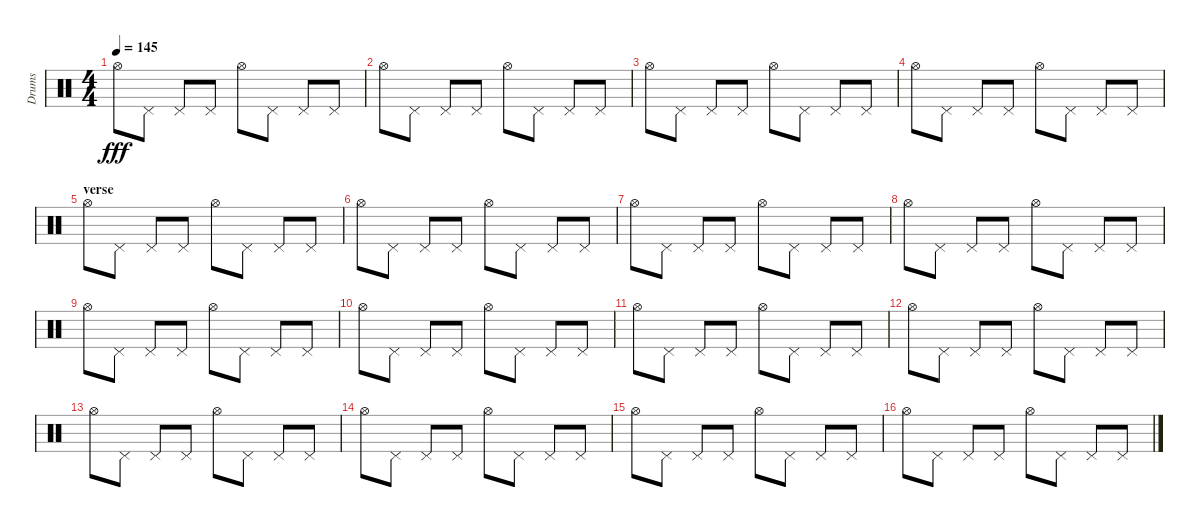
\track ("Drums" "Drums") {instrument percussion}
\staff {score}
\articulation defaults
\ts (4 4)
\tempo 145
\clef neutral
\ks c "Hi-Hat (open)".8{dy fff} "Pedal Hi-Hat (hit)".8 "Pedal Hi-Hat (hit)".8 "Pedal Hi-Hat (hit)".8 "Hi-Hat (open)".8 "Pedal Hi-Hat (hit)".8 "Pedal Hi-Hat (hit)".8 "Pedal Hi-Hat (hit)".8
|
"Hi-Hat (open)".8 "Pedal Hi-Hat (hit)".8 "Pedal Hi-Hat (hit)".8 "Pedal Hi-Hat (hit)".8 "Hi-Hat (open)".8 "Pedal Hi-Hat (hit)".8 "Pedal Hi-Hat (hit)".8 "Pedal Hi-Hat (hit)".8 |
"Hi-Hat (open)".8 "Pedal Hi-Hat (hit)".8 "Pedal Hi-Hat (hit)".8 "Pedal Hi-Hat (hit)".8 "Hi-Hat (open)".8 "Pedal Hi-Hat (hit)".8 "Pedal Hi-Hat (hit)".8 "Pedal Hi-Hat (hit)".8 |
"Hi-Hat (open)".8 "Pedal Hi-Hat (hit)".8 "Pedal Hi-Hat (hit)".8 "Pedal Hi-Hat (hit)".8 "Hi-Hat (open)".8 "Pedal Hi-Hat (hit)".8 "Pedal Hi-Hat (hit)".8 "Pedal Hi-Hat (hit)".8 |
\section ("" "verse")
"Hi-Hat (open)".8 "Pedal Hi-Hat (hit)".8 "Pedal Hi-Hat (hit)".8 "Pedal Hi-Hat (hit)".8 "Hi-Hat (open)".8 "Pedal Hi-Hat (hit)".8 "Pedal Hi-Hat (hit)".8 "Pedal Hi-Hat (hit)".8 |
"Hi-Hat (open)".8 "Pedal Hi-Hat (hit)".8 "Pedal Hi-Hat (hit)".8 "Pedal Hi-Hat (hit)".8 "Hi-Hat (open)".8 "Pedal Hi-Hat (hit)".8 "Pedal Hi-Hat (hit)".8 "Pedal Hi-Hat (hit)".8 |
"Hi-Hat (open)".8 "Pedal Hi-Hat (hit)".8 "Pedal Hi-Hat (hit)".8 "Pedal Hi-Hat (hit)".8 "Hi-Hat (open)".8 "Pedal Hi-Hat (hit)".8 "Pedal Hi-Hat (hit)".8 "Pedal Hi-Hat (hit)".8 |
"Hi-Hat (open)".8 "Pedal Hi-Hat (hit)".8 "Pedal Hi-Hat (hit)".8 "Pedal Hi-Hat (hit)".8 "Hi-Hat (open)".8 "Pedal Hi-Hat (hit)".8 "Pedal Hi-Hat (hit)".8 "Pedal Hi-Hat (hit)".8 |
"Hi-Hat (open)".8 "Pedal Hi-Hat (hit)".8 "Pedal Hi-Hat (hit)".8 "Pedal Hi-Hat (hit)".8 "Hi-Hat (open)".8 "Pedal Hi-Hat (hit)".8 "Pedal Hi-Hat (hit)".8 "Pedal Hi-Hat (hit)".8 |
"Hi-Hat (open)".8 "Pedal Hi-Hat (hit)".8 "Pedal Hi-Hat (hit)".8 "Pedal Hi-Hat (hit)".8 "Hi-Hat (open)".8 "Pedal Hi-Hat (hit)".8 "Pedal Hi-Hat (hit)".8 "Pedal Hi-Hat (hit)".8 |
"Hi-Hat (open)".8 "Pedal Hi-Hat (hit)".8 "Pedal Hi-Hat (hit)".8 "Pedal Hi-Hat (hit)".8 "Hi-Hat (open)".8 "Pedal Hi-Hat (hit)".8 "Pedal Hi-Hat (hit)".8 "Pedal Hi-Hat (hit)".8 |
"Hi-Hat (open)".8 "Pedal Hi-Hat (hit)".8 "Pedal Hi-Hat (hit)".8 "Pedal Hi-Hat (hit)".8 "Hi-Hat (open)".8 "Pedal Hi-Hat (hit)".8 "Pedal Hi-Hat (hit)".8 "Pedal Hi-Hat (hit)".8 |
"Hi-Hat (open)".8 "Pedal Hi-Hat (hit)".8 "Pedal Hi-Hat (hit)".8 "Pedal Hi-Hat (hit)".8 "Hi-Hat (open)".8 "Pedal Hi-Hat (hit)".8 "Pedal Hi-Hat (hit)".8 "Pedal Hi-Hat (hit)".8 |
"Hi-Hat (open)".8 "Pedal Hi-Hat (hit)".8 "Pedal Hi-Hat (hit)".8 "Pedal Hi-Hat (hit)".8 "Hi-Hat (open)".8 "Pedal Hi-Hat (hit)".8 "Pedal Hi-Hat (hit)".8 "Pedal Hi-Hat (hit)".8 |
"Hi-Hat (open)".8 "Pedal Hi-Hat (hit)".8 "Pedal Hi-Hat (hit)".8 "Pedal Hi-Hat (hit)".8 "Hi-Hat (open)".8 "Pedal Hi-Hat (hit)".8 "Pedal Hi-Hat (hit)".8 "Pedal Hi-Hat (hit)".8 |
"Hi-Hat (open)".8 "Pedal Hi-Hat (hit)".8 "Pedal Hi-Hat (hit)".8 "Pedal Hi-Hat (hit)".8 "Hi-Hat (open)".8 "Pedal Hi-Hat (hit)".8 "Pedal Hi-Hat (hit)".8 "Pedal Hi-Hat (hit)".8
